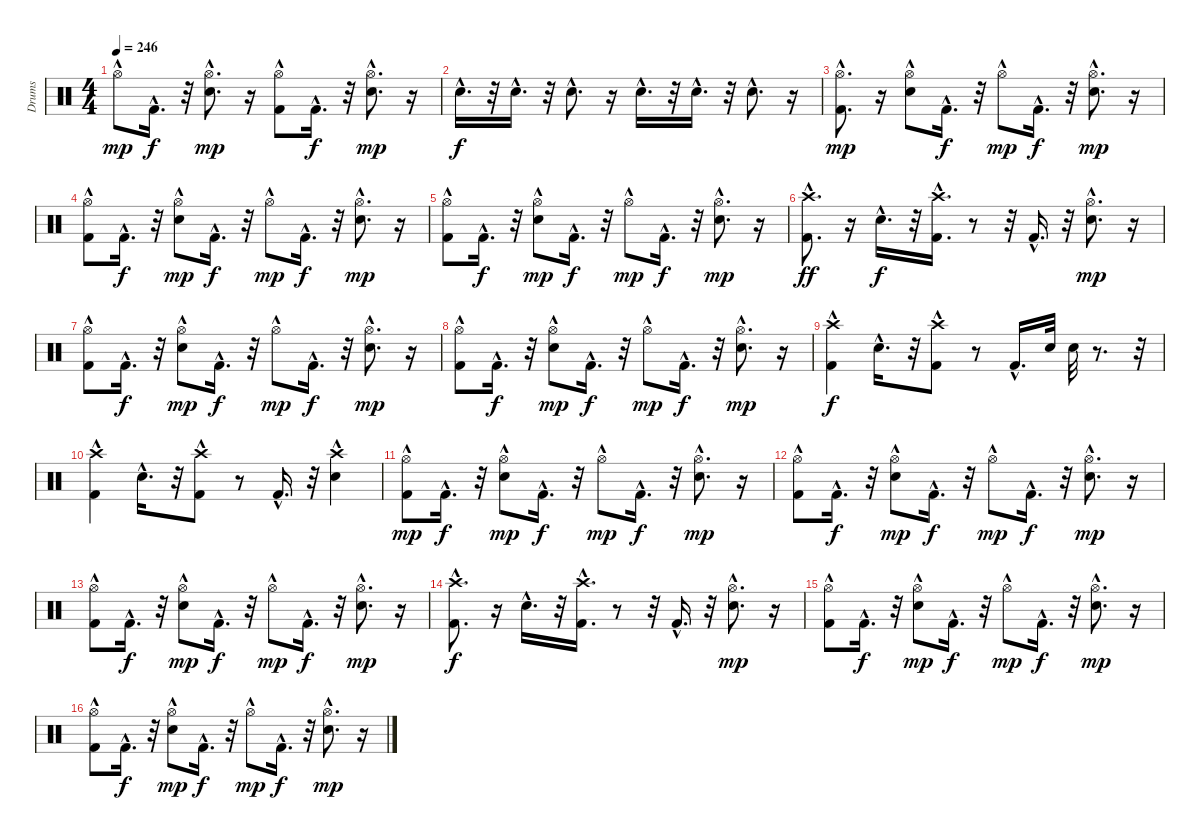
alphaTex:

\track ("Drums" "Drums") {instrument percussion}
\staff {score}
\articulation defaults
\ts (4 4)
\tempo 246
\clef neutral
\ks c "Hi-Hat (open)"{hac}.8{dy mp} "Kick (hit) 2"{hac}.16{d dy f}
r.32 ("Hi-Hat (open)"{hac} "Electric Snare (hit)"{hac}).8{d dy mp} r.16 ("Kick (hit) 2"{hac} "Hi-Hat (open)"{hac}).8 "Kick (hit) 2"{hac}.16{d dy f} r.32 ("Hi-Hat (open)"{hac} "Electric Snare (hit)"{hac}).8{d dy mp} r.16 |
"Electric Snare (hit)"{hac}.16{d dy f} r.32 "Electric Snare (hit)"{hac}.16{d} r.32 "Electric Snare (hit)"{hac}.8{d} r.16 "Electric Snare (hit)"{hac}.16{d} r.32 "Electric Snare (hit)"{hac}.16{d} r.32 "Electric Snare (hit)"{hac}.8{d} r.16 |
("Kick (hit) 2"{hac} "Hi-Hat (open)"{hac}).8{d dy mp} r.16 ("Electric Snare (hit)"{hac} "Hi-Hat (open)"{hac}).8 "Kick (hit) 2"{hac}.16{d dy f} r.32 "Hi-Hat (open)"{hac}.8{dy mp} "Kick (hit) 2"{hac}.16{d dy f} r.32 ("Electric Snare (hit)"{hac} "Hi-Hat (open)"{hac}).8{d dy mp} r.16 |
("Kick (hit) 2"{hac} "Hi-Hat (open)"{hac}).8 "Kick (hit) 2"{hac}.16{d dy f} r.32 ("Electric Snare (hit)"{hac} "Hi-Hat (open)"{hac}).8{dy mp} "Kick (hit) 2"{hac}.16{d dy f} r.32 "Hi-Hat (open)"{hac}.8{dy mp} "Kick (hit) 2"{hac}.16{d dy f} r.32 ("Electric Snare (hit)"{hac} "Hi-Hat (open)"{hac}).8{d dy mp} r.16 |
("Kick (hit) 2"{hac} "Hi-Hat (open)"{hac}).8 "Kick (hit) 2"{hac}.16{d dy f} r.32 ("Electric Snare (hit)"{hac} "Hi-Hat (open)"{hac}).8{dy mp} "Kick (hit) 2"{hac}.16{d dy f} r.32 "Hi-Hat (open)"{hac}.8{dy mp} "Kick (hit) 2"{hac}.16{d dy f} r.32 ("Electric Snare (hit)"{hac} "Hi-Hat (open)"{hac}).8{d dy mp} r.16 |
("Kick (hit) 2"{hac} "Crash high (hit)"{hac}).8{d dy ff} r.16 "Electric Snare (hit)"{hac}.16{d dy f} r.32 ("Kick (hit) 2"{hac} "Crash high (hit)"{hac}).16{d} r.8 r.32 "Kick (hit) 2"{hac}.16{d} r.32 ("Electric Snare (hit)"{hac} "Hi-Hat (open)"{hac}).8{d dy mp} r.16 |
("Kick (hit) 2"{hac} "Hi-Hat (open)"{hac}).8 "Kick (hit) 2"{hac}.16{d dy f} r.32 ("Electric Snare (hit)"{hac} "Hi-Hat (open)"{hac}).8{dy mp} "Kick (hit) 2"{hac}.16{d dy f} r.32 "Hi-Hat (open)"{hac}.8{dy mp} "Kick (hit) 2"{hac}.16{d dy f} r.32 ("Electric Snare (hit)"{hac} "Hi-Hat (open)"{hac}).8{d dy mp} r.16 |
("Kick (hit) 2"{hac} "Hi-Hat (open)"{hac}).8 "Kick (hit) 2"{hac}.16{d dy f} r.32 ("Electric Snare (hit)"{hac} "Hi-Hat (open)"{hac}).8{dy mp} "Kick (hit) 2"{hac}.16{d dy f} r.32 "Hi-Hat (open)"{hac}.8{dy mp} "Kick (hit) 2"{hac}.16{d dy f} r.32 ("Electric Snare (hit)"{hac} "Hi-Hat (open)"{hac}).8{d dy mp} r.16 |
("Kick (hit) 2"{hac} "Crash high (hit)").4{dy f} "Electric Snare (hit)"{hac}.16{d} r.32 ("Kick (hit) 2"{hac} "Crash high (hit)").8 r.8 "Kick (hit) 2"{hac}.16{d} "Electric Snare (hit)".32 "Electric Snare (hit)".32 r.8{d} r.32 |
("Kick (hit) 2"{hac} "Crash high (hit)").4 "Electric Snare (hit)"{hac}.16{d} r.32 ("Kick (hit) 2"{hac} "Crash high (hit)").8 r.8 "Kick (hit) 2"{hac}.16{d} r.32 ("Electric Snare (hit)"{hac} "Crash high (hit)").4 |
("Kick (hit) 2"{hac} "Hi-Hat (open)"{hac}).8{dy mp} "Kick (hit) 2"{hac}.16{d dy f} r.32 ("Electric Snare (hit)"{hac} "Hi-Hat (open)"{hac}).8{dy mp} "Kick (hit) 2"{hac}.16{d dy f} r.32 "Hi-Hat (open)"{hac}.8{dy mp} "Kick (hit) 2"{hac}.16{d dy f} r.32 ("Electric Snare (hit)"{hac} "Hi-Hat (open)"{hac}).8{d dy mp} r.16 |
("Kick (hit) 2"{hac} "Hi-Hat (open)"{hac}).8 "Kick (hit) 2"{hac}.16{d dy f} r.32 ("Electric Snare (hit)"{hac} "Hi-Hat (open)"{hac}).8{dy mp} "Kick (hit) 2"{hac}.16{d dy f} r.32 "Hi-Hat (open)"{hac}.8{dy mp} "Kick (hit) 2"{hac}.16{d dy f} r.32 ("Electric Snare (hit)"{hac} "Hi-Hat (open)"{hac}).8{d dy mp} r.16 |
("Kick (hit) 2"{hac} "Hi-Hat (open)"{hac}).8 "Kick (hit) 2"{hac}.16{d dy f} r.32 ("Electric Snare (hit)"{hac} "Hi-Hat (open)"{hac}).8{dy mp} "Kick (hit) 2"{hac}.16{d dy f} r.32 "Hi-Hat (open)"{hac}.8{dy mp} "Kick (hit) 2"{hac}.16{d dy f} r.32 ("Electric Snare (hit)"{hac} "Hi-Hat (open)"{hac}).8{d dy mp} r.16 |
("Kick (hit) 2"{hac} "Crash high (hit)"{hac}).8{d dy f} r.16 "Electric Snare (hit)"{hac}.16{d} r.32 ("Kick (hit) 2"{hac} "Crash high (hit)"{hac}).16{d} r.8 r.32 "Kick (hit) 2"{hac}.16{d} r.32 ("Electric Snare (hit)"{hac} "Hi-Hat (open)"{hac}).8{d dy mp} r.16 |
("Kick (hit) 2"{hac} "Hi-Hat (open)"{hac}).8 "Kick (hit) 2"{hac}.16{d dy f} r.32 ("Electric Snare (hit)"{hac} "Hi-Hat (open)"{hac}).8{dy mp} "Kick (hit) 2"{hac}.16{d dy f} r.32 "Hi-Hat (open)"{hac}.8{dy mp} "Kick (hit) 2"{hac}.16{d dy f} r.32 ("Electric Snare (hit)"{hac} "Hi-Hat (open)"{hac}).8{d dy mp} r.16 |
("Kick (hit) 2"{hac} "Hi-Hat (open)"{hac}).8 "Kick (hit) 2"{hac}.16{d dy f} r.32 ("Electric Snare (hit)"{hac} "Hi-Hat (open)"{hac}).8{dy mp} "Kick (hit) 2"{hac}.16{d dy f} r.32 "Hi-Hat (open)"{hac}.8{dy mp} "Kick (hit) 2"{hac}.16{d dy f} r.32 ("Electric Snare (hit)"{hac} "Hi-Hat (open)"{hac}).8{d dy mp} r.16
